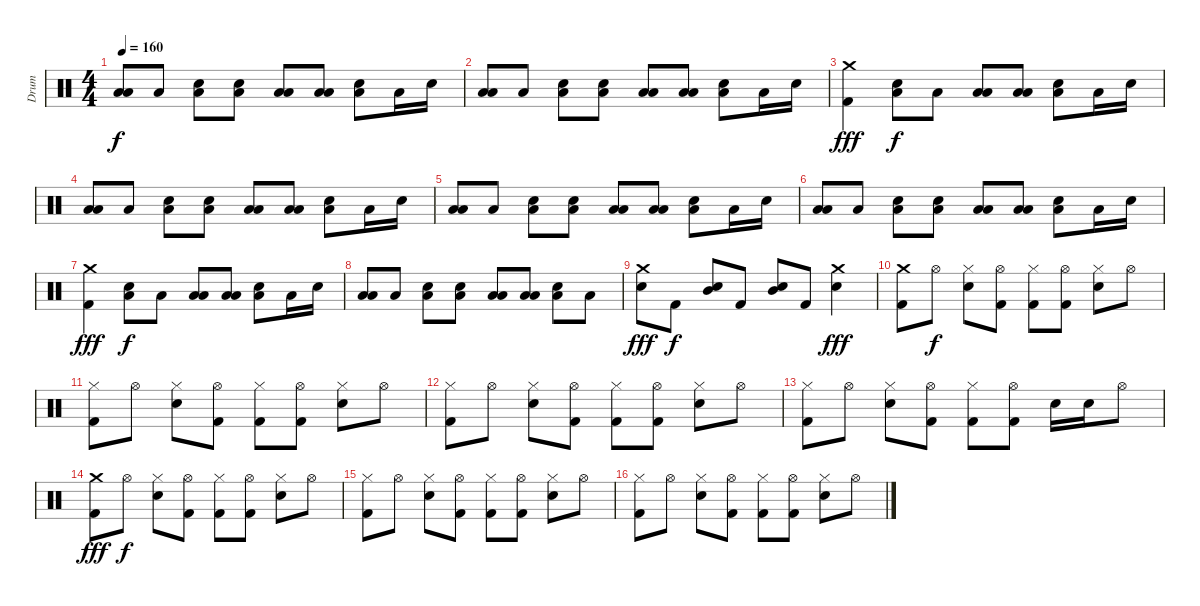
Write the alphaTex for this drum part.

\track ("Drum" "Drum") {instrument percussion}
\staff {score}
\articulation defaults
\ts (4 4)
\tempo 160
\clef neutral
\ks c
("Low Tom (hit)" "Low Floor Tom (hit)").8{dy f} "Low Tom (hit)".8 ("Snare (hit) 2" "Low Tom (hit)").8 ("Snare (hit) 2" "Low Tom (hit)").8 ("Low Tom (hit)" "Low Floor Tom (hit)").8 ("Low Tom (hit)" "Low Floor Tom (hit)").8 ("Snare (hit) 2" "Low Tom (hit)").8 "Low Tom (hit)".16 "Snare (hit) 2".16 |
("Low Tom (hit)" "Low Floor Tom (hit)").8 "Low Tom (hit)".8 ("Snare (hit) 2" "Low Tom (hit)").8 ("Snare (hit) 2" "Low Tom (hit)").8 ("Low Tom (hit)" "Low Floor Tom (hit)").8 ("Low Tom (hit)" "Low Floor Tom (hit)").8 ("Snare (hit) 2" "Low Tom (hit)").8 "Low Tom (hit)".16 "Snare (hit) 2".16 |
("Crash medium (hit)" "Kick (hit) 2").4{dy fff} ("Snare (hit) 2" "Low Tom (hit)").8{dy f} "Low Tom (hit)".8 ("Low Tom (hit)" "Low Floor Tom (hit)").8 ("Low Tom (hit)" "Low Floor Tom (hit)").8 ("Snare (hit) 2" "Low Tom (hit)").8 "Low Tom (hit)".16 "Snare (hit) 2".16 |
("Low Tom (hit)" "Low Floor Tom (hit)").8 "Low Tom (hit)".8 ("Snare (hit) 2" "Low Tom (hit)").8 ("Snare (hit) 2" "Low Tom (hit)").8 ("Low Tom (hit)" "Low Floor Tom (hit)").8 ("Low Tom (hit)" "Low Floor Tom (hit)").8 ("Snare (hit) 2" "Low Tom (hit)").8 "Low Tom (hit)".16 "Snare (hit) 2".16 |
("Low Tom (hit)" "Low Floor Tom (hit)").8 "Low Tom (hit)".8 ("Snare (hit) 2" "Low Tom (hit)").8 ("Snare (hit) 2" "Low Tom (hit)").8 ("Low Tom (hit)" "Low Floor Tom (hit)").8 ("Low Tom (hit)" "Low Floor Tom (hit)").8 ("Snare (hit) 2" "Low Tom (hit)").8 "Low Tom (hit)".16 "Snare (hit) 2".16 |
("Low Tom (hit)" "Low Floor Tom (hit)").8 "Low Tom (hit)".8 ("Snare (hit) 2" "Low Tom (hit)").8 ("Snare (hit) 2" "Low Tom (hit)").8 ("Low Tom (hit)" "Low Floor Tom (hit)").8 ("Low Tom (hit)" "Low Floor Tom (hit)").8 ("Snare (hit) 2" "Low Tom (hit)").8 "Low Tom (hit)".16 "Snare (hit) 2".16 |
("Crash medium (hit)" "Kick (hit) 2").4{dy fff} ("Snare (hit) 2" "Low Tom (hit)").8{dy f} "Low Tom (hit)".8 ("Low Tom (hit)" "Low Floor Tom (hit)").8 ("Low Tom (hit)" "Low Floor Tom (hit)").8 ("Snare (hit) 2" "Low Tom (hit)").8 "Low Tom (hit)".16 "Snare (hit) 2".16 |
("Low Tom (hit)" "Low Floor Tom (hit)").8 "Low Tom (hit)".8 ("Snare (hit) 2" "Low Tom (hit)").8 ("Snare (hit) 2" "Low Tom (hit)").8 ("Low Tom (hit)" "Low Floor Tom (hit)").8 ("Low Tom (hit)" "Low Floor Tom (hit)").8 ("Snare (hit) 2" "Low Tom (hit)").8 "Low Tom (hit)".8 |
("Crash medium (hit)" "Snare (hit) 2").8{dy fff} "Kick (hit) 2".8{dy f} ("Snare (hit) 2" "Mid Tom (hit)").8 "Kick (hit) 2".8 ("Snare (hit) 2" "Mid Tom (hit)").8 "Kick (hit) 2".8 ("Crash medium (hit)" "Snare (hit) 2").4{dy fff} |
("Crash medium (hit)" "Kick (hit) 2").8 "Hi-Hat (open)".8{dy f} ("Hi-Hat (closed)" "Snare (hit) 2").8 ("Hi-Hat (open)" "Kick (hit) 2").8 ("Hi-Hat (closed)" "Kick (hit) 2").8 ("Hi-Hat (open)" "Kick (hit) 2").8 ("Hi-Hat (closed)" "Snare (hit) 2").8 "Hi-Hat (open)".8 |
("Hi-Hat (closed)" "Kick (hit) 2").8 "Hi-Hat (open)".8 ("Hi-Hat (closed)" "Snare (hit) 2").8 ("Hi-Hat (open)" "Kick (hit) 2").8 ("Hi-Hat (closed)" "Kick (hit) 2").8 ("Hi-Hat (open)" "Kick (hit) 2").8 ("Hi-Hat (closed)" "Snare (hit) 2").8 "Hi-Hat (open)".8 |
("Hi-Hat (closed)" "Kick (hit) 2").8 "Hi-Hat (open)".8 ("Hi-Hat (closed)" "Snare (hit) 2").8 ("Hi-Hat (open)" "Kick (hit) 2").8 ("Hi-Hat (closed)" "Kick (hit) 2").8 ("Hi-Hat (open)" "Kick (hit) 2").8 ("Hi-Hat (closed)" "Snare (hit) 2").8 "Hi-Hat (open)".8 |
("Hi-Hat (closed)" "Kick (hit) 2").8 "Hi-Hat (open)".8 ("Hi-Hat (closed)" "Snare (hit) 2").8 ("Hi-Hat (open)" "Kick (hit) 2").8 ("Hi-Hat (closed)" "Kick (hit) 2").8 ("Hi-Hat (open)" "Kick (hit) 2").8 "Snare (hit) 2".16 "Snare (hit) 2".16 "Hi-Hat (open)".8 |
("Crash medium (hit)" "Kick (hit) 2").8{dy fff} "Hi-Hat (open)".8{dy f} ("Hi-Hat (closed)" "Snare (hit) 2").8 ("Hi-Hat (open)" "Kick (hit) 2").8 ("Hi-Hat (closed)" "Kick (hit) 2").8 ("Hi-Hat (open)" "Kick (hit) 2").8 ("Hi-Hat (closed)" "Snare (hit) 2").8 "Hi-Hat (open)".8 |
("Hi-Hat (closed)" "Kick (hit) 2").8 "Hi-Hat (open)".8 ("Hi-Hat (closed)" "Snare (hit) 2").8 ("Hi-Hat (open)" "Kick (hit) 2").8 ("Hi-Hat (closed)" "Kick (hit) 2").8 ("Hi-Hat (open)" "Kick (hit) 2").8 ("Hi-Hat (closed)" "Snare (hit) 2").8 "Hi-Hat (open)".8 |
("Hi-Hat (closed)" "Kick (hit) 2").8 "Hi-Hat (open)".8 ("Hi-Hat (closed)" "Snare (hit) 2").8 ("Hi-Hat (open)" "Kick (hit) 2").8 ("Hi-Hat (closed)" "Kick (hit) 2").8 ("Hi-Hat (open)" "Kick (hit) 2").8 ("Hi-Hat (closed)" "Snare (hit) 2").8 "Hi-Hat (open)".8
